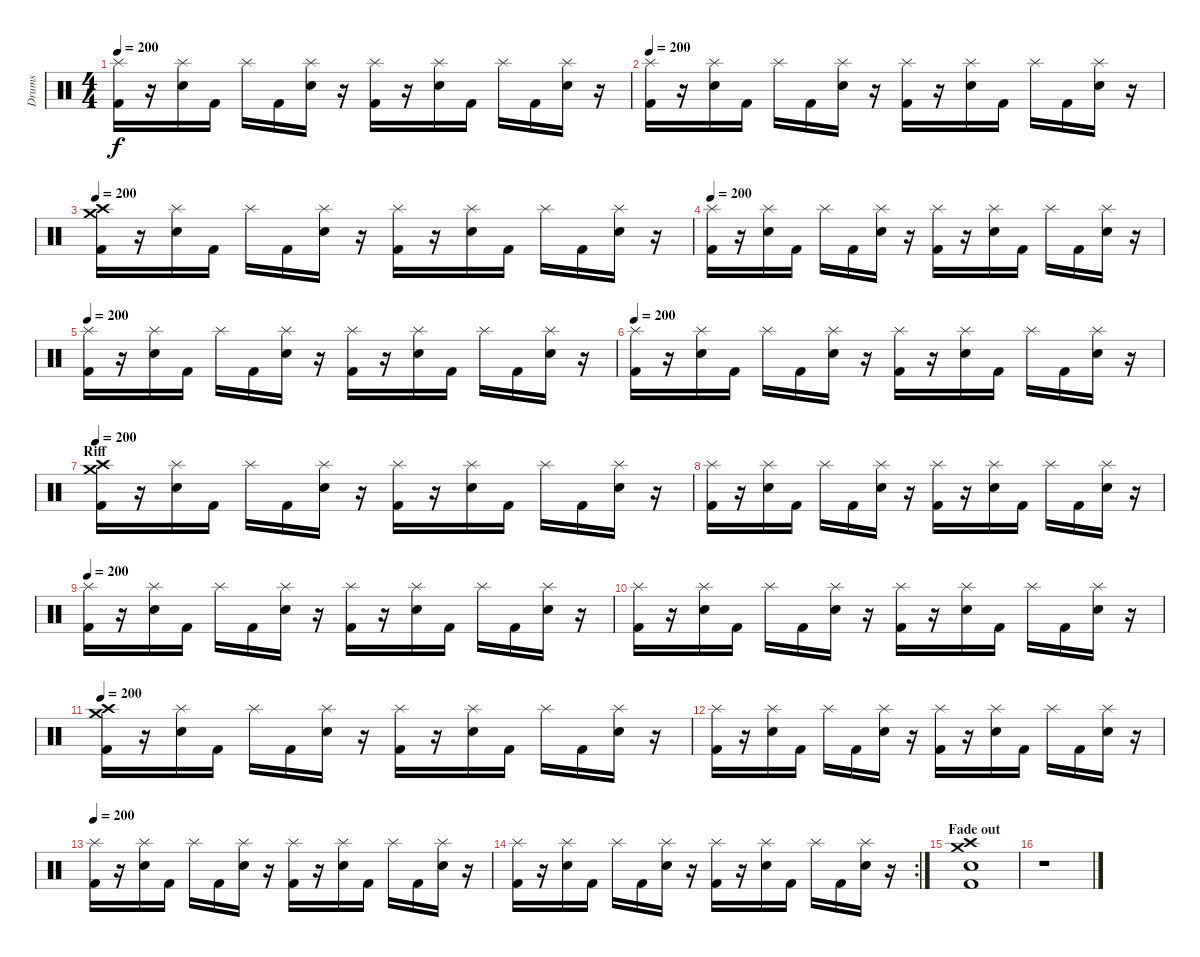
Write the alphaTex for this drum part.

\track ("Drums" "Drums") {instrument percussion}
\staff {score}
\articulation defaults
\ts (4 4)
\tempo 200
\clef neutral
\ks c
("Splash (hit)" "Kick (hit) 2").16{dy f} r.16 ("Splash (hit)" "Snare (hit) 2").16 "Kick (hit) 2".16 "Splash (hit)".16 "Kick (hit) 2".16 ("Splash (hit)" "Snare (hit) 2").16 r.16 ("Splash (hit)" "Kick (hit) 2").16 r.16 ("Splash (hit)" "Snare (hit) 2").16 "Kick (hit) 2".16 "Splash (hit)".16 "Kick (hit) 2".16 ("Splash (hit)" "Snare (hit) 2").16 r.16 |
\tempo 200
("Splash (hit)" "Kick (hit) 2").16 r.16 ("Splash (hit)" "Snare (hit) 2").16 "Kick (hit) 2".16 "Splash (hit)".16 "Kick (hit) 2".16 ("Splash (hit)" "Snare (hit) 2").16 r.16 ("Splash (hit)" "Kick (hit) 2").16 r.16 ("Splash (hit)" "Snare (hit) 2").16 "Kick (hit) 2".16 "Splash (hit)".16 "Kick (hit) 2".16 ("Splash (hit)" "Snare (hit) 2").16 r.16 |
\tempo 200
("Crash medium (hit)" "Crash high (hit)" "Kick (hit) 2").16 r.16 ("Splash (hit)" "Snare (hit) 2").16 "Kick (hit) 2".16 "Splash (hit)".16 "Kick (hit) 2".16 ("Splash (hit)" "Snare (hit) 2").16 r.16 ("Splash (hit)" "Kick (hit) 2").16 r.16 ("Splash (hit)" "Snare (hit) 2").16 "Kick (hit) 2".16 "Splash (hit)".16 "Kick (hit) 2".16 ("Splash (hit)" "Snare (hit) 2").16 r.16 |
\tempo 200
("Splash (hit)" "Kick (hit) 2").16 r.16 ("Splash (hit)" "Snare (hit) 2").16 "Kick (hit) 2".16 "Splash (hit)".16 "Kick (hit) 2".16 ("Splash (hit)" "Snare (hit) 2").16 r.16 ("Splash (hit)" "Kick (hit) 2").16 r.16 ("Splash (hit)" "Snare (hit) 2").16 "Kick (hit) 2".16 "Splash (hit)".16 "Kick (hit) 2".16 ("Splash (hit)" "Snare (hit) 2").16 r.16 |
\tempo 200
("Splash (hit)" "Kick (hit) 2").16 r.16 ("Splash (hit)" "Snare (hit) 2").16 "Kick (hit) 2".16 "Splash (hit)".16 "Kick (hit) 2".16 ("Splash (hit)" "Snare (hit) 2").16 r.16 ("Splash (hit)" "Kick (hit) 2").16 r.16 ("Splash (hit)" "Snare (hit) 2").16 "Kick (hit) 2".16 "Splash (hit)".16 "Kick (hit) 2".16 ("Splash (hit)" "Snare (hit) 2").16 r.16 |
\tempo 200
("Splash (hit)" "Kick (hit) 2").16 r.16 ("Splash (hit)" "Snare (hit) 2").16 "Kick (hit) 2".16 "Splash (hit)".16 "Kick (hit) 2".16 ("Splash (hit)" "Snare (hit) 2").16 r.16 ("Splash (hit)" "Kick (hit) 2").16 r.16 ("Splash (hit)" "Snare (hit) 2").16 "Kick (hit) 2".16 "Splash (hit)".16 "Kick (hit) 2".16 ("Splash (hit)" "Snare (hit) 2").16 r.16 |
\section ("" "Riff")
\tempo 200
("Crash medium (hit)" "Crash high (hit)" "Kick (hit) 2").16 r.16 ("Splash (hit)" "Snare (hit) 2").16 "Kick (hit) 2".16 "Splash (hit)".16 "Kick (hit) 2".16 ("Splash (hit)" "Snare (hit) 2").16 r.16 ("Splash (hit)" "Kick (hit) 2").16 r.16 ("Splash (hit)" "Snare (hit) 2").16 "Kick (hit) 2".16 "Splash (hit)".16 "Kick (hit) 2".16 ("Splash (hit)" "Snare (hit) 2").16 r.16 |
("Splash (hit)" "Kick (hit) 2").16 r.16 ("Splash (hit)" "Snare (hit) 2").16 "Kick (hit) 2".16 "Splash (hit)".16 "Kick (hit) 2".16 ("Splash (hit)" "Snare (hit) 2").16 r.16 ("Splash (hit)" "Kick (hit) 2").16 r.16 ("Splash (hit)" "Snare (hit) 2").16 "Kick (hit) 2".16 "Splash (hit)".16 "Kick (hit) 2".16 ("Splash (hit)" "Snare (hit) 2").16 r.16 |
\tempo 200
("Splash (hit)" "Kick (hit) 2").16 r.16 ("Splash (hit)" "Snare (hit) 2").16 "Kick (hit) 2".16 "Splash (hit)".16 "Kick (hit) 2".16 ("Splash (hit)" "Snare (hit) 2").16 r.16 ("Splash (hit)" "Kick (hit) 2").16 r.16 ("Splash (hit)" "Snare (hit) 2").16 "Kick (hit) 2".16 "Splash (hit)".16 "Kick (hit) 2".16 ("Splash (hit)" "Snare (hit) 2").16 r.16 |
("Splash (hit)" "Kick (hit) 2").16 r.16 ("Splash (hit)" "Snare (hit) 2").16 "Kick (hit) 2".16 "Splash (hit)".16 "Kick (hit) 2".16 ("Splash (hit)" "Snare (hit) 2").16 r.16 ("Splash (hit)" "Kick (hit) 2").16 r.16 ("Splash (hit)" "Snare (hit) 2").16 "Kick (hit) 2".16 "Splash (hit)".16 "Kick (hit) 2".16 ("Splash (hit)" "Snare (hit) 2").16 r.16 |
\tempo 200
("Crash medium (hit)" "Crash high (hit)" "Kick (hit) 2").16 r.16 ("Splash (hit)" "Snare (hit) 2").16 "Kick (hit) 2".16 "Splash (hit)".16 "Kick (hit) 2".16 ("Splash (hit)" "Snare (hit) 2").16 r.16 ("Splash (hit)" "Kick (hit) 2").16 r.16 ("Splash (hit)" "Snare (hit) 2").16 "Kick (hit) 2".16 "Splash (hit)".16 "Kick (hit) 2".16 ("Splash (hit)" "Snare (hit) 2").16 r.16 |
("Splash (hit)" "Kick (hit) 2").16 r.16 ("Splash (hit)" "Snare (hit) 2").16 "Kick (hit) 2".16 "Splash (hit)".16 "Kick (hit) 2".16 ("Splash (hit)" "Snare (hit) 2").16 r.16 ("Splash (hit)" "Kick (hit) 2").16 r.16 ("Splash (hit)" "Snare (hit) 2").16 "Kick (hit) 2".16 "Splash (hit)".16 "Kick (hit) 2".16 ("Splash (hit)" "Snare (hit) 2").16 r.16 |
\tempo 200
("Splash (hit)" "Kick (hit) 2").16 r.16 ("Splash (hit)" "Snare (hit) 2").16 "Kick (hit) 2".16 "Splash (hit)".16 "Kick (hit) 2".16 ("Splash (hit)" "Snare (hit) 2").16 r.16 ("Splash (hit)" "Kick (hit) 2").16 r.16 ("Splash (hit)" "Snare (hit) 2").16 "Kick (hit) 2".16 "Splash (hit)".16 "Kick (hit) 2".16 ("Splash (hit)" "Snare (hit) 2").16 r.16 |
\rc 2
("Splash (hit)" "Kick (hit) 2").16 r.16 ("Splash (hit)" "Snare (hit) 2").16 "Kick (hit) 2".16 "Splash (hit)".16 "Kick (hit) 2".16 ("Splash (hit)" "Snare (hit) 2").16 r.16 ("Splash (hit)" "Kick (hit) 2").16 r.16 ("Splash (hit)" "Snare (hit) 2").16 "Kick (hit) 2".16 "Splash (hit)".16 "Kick (hit) 2".16 ("Splash (hit)" "Snare (hit) 2").16 r.16 |
\section ("" "Fade out")
("Crash medium (hit)" "Crash high (hit)" "Snare (hit) 2" "Kick (hit) 2").1 |
r.1
